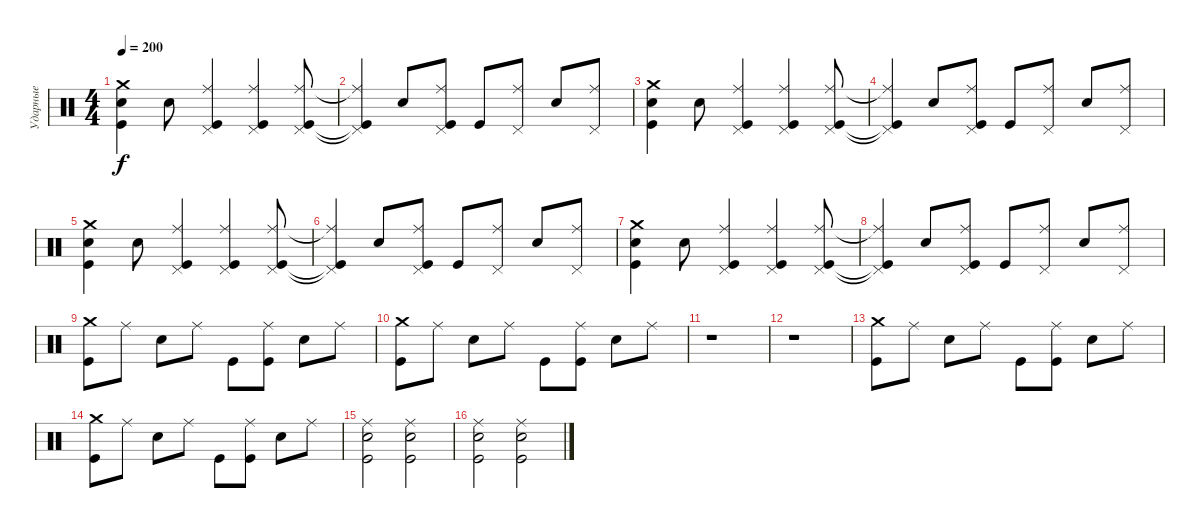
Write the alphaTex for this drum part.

\track ("Ударные" "Ударные") {instrument percussion}
\staff {score}
\articulation defaults
\ts (4 4)
\tempo 200
\clef neutral
\ks c
("Crash medium (hit)" "Electric Snare (hit)" "Kick (hit)").4{dy f} "Electric Snare (hit)".8 ("Ride (middle)" "Pedal Hi-Hat (hit)" "Kick (hit)").4 ("Ride (middle)" "Pedal Hi-Hat (hit)" "Kick (hit)").4 ("Ride (middle)" "Pedal Hi-Hat (hit)" "Kick (hit)").8 |
("Ride (middle)"{t} "Pedal Hi-Hat (hit)"{t} "Kick (hit)"{t}).4 "Electric Snare (hit)".8 ("Ride (middle)" "Pedal Hi-Hat (hit)" "Kick (hit)").8 "Kick (hit)".8 ("Ride (middle)" "Pedal Hi-Hat (hit)").8 "Electric Snare (hit)".8 ("Ride (middle)" "Pedal Hi-Hat (hit)").8 |
("Crash medium (hit)" "Electric Snare (hit)" "Kick (hit)").4 "Electric Snare (hit)".8 ("Ride (middle)" "Pedal Hi-Hat (hit)" "Kick (hit)").4 ("Ride (middle)" "Pedal Hi-Hat (hit)" "Kick (hit)").4 ("Ride (middle)" "Pedal Hi-Hat (hit)" "Kick (hit)").8 |
("Ride (middle)"{t} "Pedal Hi-Hat (hit)"{t} "Kick (hit)"{t}).4 "Electric Snare (hit)".8 ("Ride (middle)" "Pedal Hi-Hat (hit)" "Kick (hit)").8 "Kick (hit)".8 ("Ride (middle)" "Pedal Hi-Hat (hit)").8 "Electric Snare (hit)".8 ("Ride (middle)" "Pedal Hi-Hat (hit)").8 |
("Crash medium (hit)" "Electric Snare (hit)" "Kick (hit)").4 "Electric Snare (hit)".8 ("Ride (middle)" "Pedal Hi-Hat (hit)" "Kick (hit)").4 ("Ride (middle)" "Pedal Hi-Hat (hit)" "Kick (hit)").4 ("Ride (middle)" "Pedal Hi-Hat (hit)" "Kick (hit)").8 |
("Ride (middle)"{t} "Pedal Hi-Hat (hit)"{t} "Kick (hit)"{t}).4 "Electric Snare (hit)".8 ("Ride (middle)" "Pedal Hi-Hat (hit)" "Kick (hit)").8 "Kick (hit)".8 ("Ride (middle)" "Pedal Hi-Hat (hit)").8 "Electric Snare (hit)".8 ("Ride (middle)" "Pedal Hi-Hat (hit)").8 |
("Crash medium (hit)" "Electric Snare (hit)" "Kick (hit)").4 "Electric Snare (hit)".8 ("Ride (middle)" "Pedal Hi-Hat (hit)" "Kick (hit)").4 ("Ride (middle)" "Pedal Hi-Hat (hit)" "Kick (hit)").4 ("Ride (middle)" "Pedal Hi-Hat (hit)" "Kick (hit)").8 |
("Ride (middle)"{t} "Pedal Hi-Hat (hit)"{t} "Kick (hit)"{t}).4 "Electric Snare (hit)".8 ("Ride (middle)" "Pedal Hi-Hat (hit)" "Kick (hit)").8 "Kick (hit)".8 ("Ride (middle)" "Pedal Hi-Hat (hit)").8 "Electric Snare (hit)".8 ("Ride (middle)" "Pedal Hi-Hat (hit)").8 |
("Crash medium (hit)" "Kick (hit)").8 "Ride (middle)".8 "Electric Snare (hit)".8 "Ride (middle)".8 "Kick (hit)".8 ("Ride (middle)" "Kick (hit)").8 "Electric Snare (hit)".8 "Ride (middle)".8 |
("Crash medium (hit)" "Kick (hit)").8 "Ride (middle)".8 "Electric Snare (hit)".8 "Ride (middle)".8 "Kick (hit)".8 ("Ride (middle)" "Kick (hit)").8 "Electric Snare (hit)".8 "Ride (middle)".8 |
r.1 |
r.1 |
("Crash medium (hit)" "Kick (hit)").8 "Ride (middle)".8 "Electric Snare (hit)".8 "Ride (middle)".8 "Kick (hit)".8 ("Ride (middle)" "Kick (hit)").8 "Electric Snare (hit)".8 "Ride (middle)".8 |
("Crash medium (hit)" "Kick (hit)").8 "Ride (middle)".8 "Electric Snare (hit)".8 "Ride (middle)".8 "Kick (hit)".8 ("Ride (middle)" "Kick (hit)").8 "Electric Snare (hit)".8 "Ride (middle)".8 |
("Ride (middle)" "Electric Snare (hit)" "Kick (hit)").2 ("Ride (middle)" "Electric Snare (hit)" "Kick (hit)").2 |
("Ride (middle)" "Electric Snare (hit)" "Kick (hit)").2 ("Ride (middle)" "Electric Snare (hit)" "Kick (hit)").2
